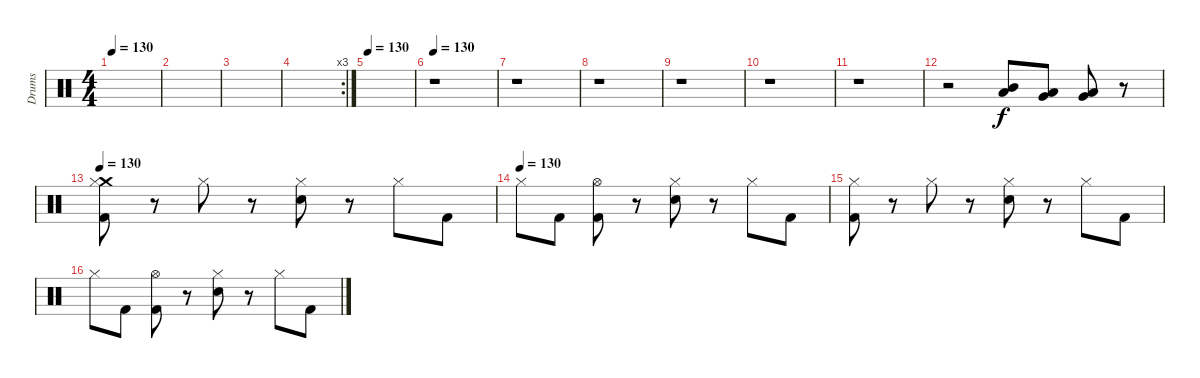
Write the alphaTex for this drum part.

\track ("Drums" "Drums") {instrument percussion}
\staff {score}
\articulation defaults
\ts (4 4)
\tempo 130
\clef neutral
\ks c
|
|
|
\rc 3
|
\tempo 130
|
\tempo 130
r.1 |
r.1 |
r.1 |
r.1 |
r.1 |
r.1 |
r.2 ("Mid Tom (hit)" "Low Tom (hit)").8 ("Low Tom (hit)" "Very Low Tom (hit)").8 ("Very Low Tom (hit)" "Low Floor Tom (hit)").8 r.8 |
\tempo 130
("Kick (hit) 2" "Crash medium (hit)" "Hi-Hat (closed)").8 r.8 "Hi-Hat (closed)".8 r.8 ("Electric Snare (hit)" "Hi-Hat (closed)").8 r.8 "Hi-Hat (closed)".8 "Kick (hit) 2".8 |
\tempo (130)
"Hi-Hat (closed)".8 "Kick (hit) 2".8 ("Kick (hit) 2" "Hi-Hat (open)").8 r.8 ("Electric Snare (hit)" "Hi-Hat (closed)").8 r.8 "Hi-Hat (closed)".8 "Kick (hit) 2".8 |
("Kick (hit) 2" "Hi-Hat (closed)").8 r.8 "Hi-Hat (closed)".8 r.8 ("Electric Snare (hit)" "Hi-Hat (closed)").8 r.8 "Hi-Hat (closed)".8 "Kick (hit) 2".8 |
"Hi-Hat (closed)".8 "Kick (hit) 2".8 ("Kick (hit) 2" "Hi-Hat (open)").8 r.8 ("Electric Snare (hit)" "Hi-Hat (closed)").8 r.8 "Hi-Hat (closed)".8 "Kick (hit) 2".8
